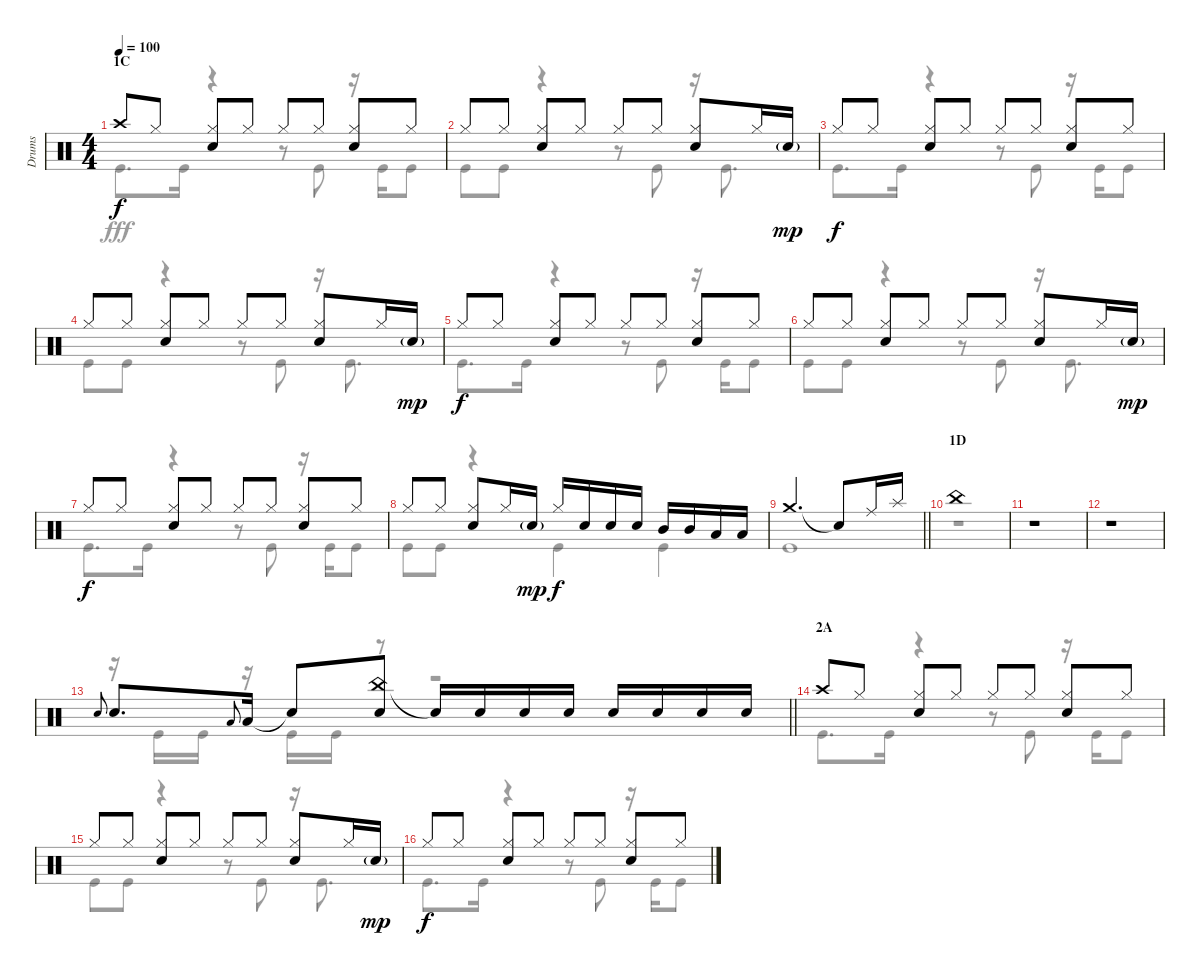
\track ("Drums" "Drums") {instrument percussion}
\staff {score}
\articulation defaults
\voice
\ts (4 4)
\section ("" "1C")
\tempo 100
\clef neutral
\ks c "Crash high (hit)".8{dy f} "Hi-Hat (closed)".8
("Hi-Hat (closed)" "Snare (hit) 2").8 "Hi-Hat (closed)".8 "Hi-Hat (closed)".8 "Hi-Hat (closed)".8 ("Hi-Hat (closed)" "Snare (hit) 2").8 "Hi-Hat (closed)".8 |
"Hi-Hat (closed)".8 "Hi-Hat (closed)".8 ("Hi-Hat (closed)" "Snare (hit) 2").8 "Hi-Hat (closed)".8 "Hi-Hat (closed)".8 "Hi-Hat (closed)".8 ("Hi-Hat (closed)" "Snare (hit) 2").8 "Hi-Hat (closed)".16 "Snare (hit) 2"{g}.16{dy mp} |
"Hi-Hat (closed)".8{dy f} "Hi-Hat (closed)".8 ("Hi-Hat (closed)" "Snare (hit) 2").8 "Hi-Hat (closed)".8 "Hi-Hat (closed)".8 "Hi-Hat (closed)".8 ("Hi-Hat (closed)" "Snare (hit) 2").8 "Hi-Hat (closed)".8 |
"Hi-Hat (closed)".8 "Hi-Hat (closed)".8 ("Hi-Hat (closed)" "Snare (hit) 2").8 "Hi-Hat (closed)".8 "Hi-Hat (closed)".8 "Hi-Hat (closed)".8 ("Hi-Hat (closed)" "Snare (hit) 2").8 "Hi-Hat (closed)".16 "Snare (hit) 2"{g}.16{dy mp} |
"Hi-Hat (closed)".8{dy f} "Hi-Hat (closed)".8 ("Hi-Hat (closed)" "Snare (hit) 2").8 "Hi-Hat (closed)".8 "Hi-Hat (closed)".8 "Hi-Hat (closed)".8 ("Hi-Hat (closed)" "Snare (hit) 2").8 "Hi-Hat (closed)".8 |
"Hi-Hat (closed)".8 "Hi-Hat (closed)".8 ("Hi-Hat (closed)" "Snare (hit) 2").8 "Hi-Hat (closed)".8 "Hi-Hat (closed)".8 "Hi-Hat (closed)".8 ("Hi-Hat (closed)" "Snare (hit) 2").8 "Hi-Hat (closed)".16 "Snare (hit) 2"{g}.16{dy mp} |
"Hi-Hat (closed)".8{dy f} "Hi-Hat (closed)".8 ("Hi-Hat (closed)" "Snare (hit) 2").8 "Hi-Hat (closed)".8 "Hi-Hat (closed)".8 "Hi-Hat (closed)".8 ("Hi-Hat (closed)" "Snare (hit) 2").8 "Hi-Hat (closed)".8 |
"Hi-Hat (closed)".8 "Hi-Hat (closed)".8 ("Hi-Hat (closed)" "Snare (hit) 2").8 "Hi-Hat (closed)".16 "Snare (hit) 2"{g}.16{dy mp} "Hi-Hat (closed)".16{dy f} "Snare (hit) 2".16 "Snare (hit) 2".16 "Snare (hit) 2".16 "Mid Tom (hit)".16 "Mid Tom (hit)".16 "Low Tom (hit)".16 "Low Tom (hit)".16 |
\barLineRight lightlight "Crash medium (hit)".2{d} "Snare (hit)"{t}.8 "Ride (middle)".16 "Splash (hit)".16
|
\section ("" "1D")
"China (hit)".1 |
r.1 |
r.1 |
\barLineRight lightlight "Snare (hit) 2".8{gr onbeat} "Snare (hit) 2".8{d} "Low Tom (hit)".8{gr onbeat} "Low Tom (hit)".16 "Snare (hit)"{t}.8
("China (hit)" "Snare (hit) 2").8 "Snare (hit)"{t}.16 "Snare (hit) 2".16 "Snare (hit) 2".16 "Snare (hit) 2".16 "Snare (hit) 2".16 "Snare (hit) 2".16 "Snare (hit) 2".16 "Snare (hit) 2".16 |
\section ("" "2A")
"Crash high (hit)".8 "Hi-Hat (closed)".8 ("Hi-Hat (closed)" "Snare (hit) 2").8 "Hi-Hat (closed)".8 "Hi-Hat (closed)".8 "Hi-Hat (closed)".8 ("Hi-Hat (closed)" "Snare (hit) 2").8 "Hi-Hat (closed)".8 |
"Hi-Hat (closed)".8 "Hi-Hat (closed)".8 ("Hi-Hat (closed)" "Snare (hit) 2").8 "Hi-Hat (closed)".8 "Hi-Hat (closed)".8 "Hi-Hat (closed)".8 ("Hi-Hat (closed)" "Snare (hit) 2").8 "Hi-Hat (closed)".16 "Snare (hit) 2"{g}.16{dy mp} |
"Hi-Hat (closed)".8{dy f} "Hi-Hat (closed)".8 ("Hi-Hat (closed)" "Snare (hit) 2").8 "Hi-Hat (closed)".8 "Hi-Hat (closed)".8 "Hi-Hat (closed)".8 ("Hi-Hat (closed)" "Snare (hit) 2").8 "Hi-Hat (closed)".8
\voice
\clef neutral
\ottava regular
\simile none
\ks c "Kick (hit)".8{d dy fff} "Kick (hit)".16
r.4 r.8 "Kick (hit)".8 r.16 "Kick (hit)".16 "Kick (hit)".8 |
"Kick (hit)".8 "Kick (hit)".8 r.4 r.8 "Kick (hit)".8 r.16 "Kick (hit)".8{d} |
"Kick (hit)".8{d} "Kick (hit)".16 r.4 r.8 "Kick (hit)".8 r.16 "Kick (hit)".16 "Kick (hit)".8 |
"Kick (hit)".8 "Kick (hit)".8 r.4 r.8 "Kick (hit)".8 r.16 "Kick (hit)".8{d} |
"Kick (hit)".8{d} "Kick (hit)".16 r.4 r.8 "Kick (hit)".8 r.16 "Kick (hit)".16 "Kick (hit)".8 |
"Kick (hit)".8 "Kick (hit)".8 r.4 r.8 "Kick (hit)".8 r.16 "Kick (hit)".8{d} |
"Kick (hit)".8{d} "Kick (hit)".16 r.4 r.8 "Kick (hit)".8 r.16 "Kick (hit)".16 "Kick (hit)".8 |
"Kick (hit)".8 "Kick (hit)".8 r.4 "Kick (hit)".4 "Kick (hit)".4 |
\barLineRight lightlight "Kick (hit)".1
|
r.1 |
r.1 |
r.1 |
\barLineRight lightlight
r.16 "Kick (hit)".16 "Kick (hit)".16 r.16 "Kick (hit)".16 "Kick (hit)".16 r.8 r.2 |
"Kick (hit)".8{d} "Kick (hit)".16 r.4 r.8 "Kick (hit)".8 r.16 "Kick (hit)".16 "Kick (hit)".8 |
"Kick (hit)".8 "Kick (hit)".8 r.4 r.8 "Kick (hit)".8 r.16 "Kick (hit)".8{d} |
"Kick (hit)".8{d} "Kick (hit)".16 r.4 r.8 "Kick (hit)".8 r.16 "Kick (hit)".16 "Kick (hit)".8
